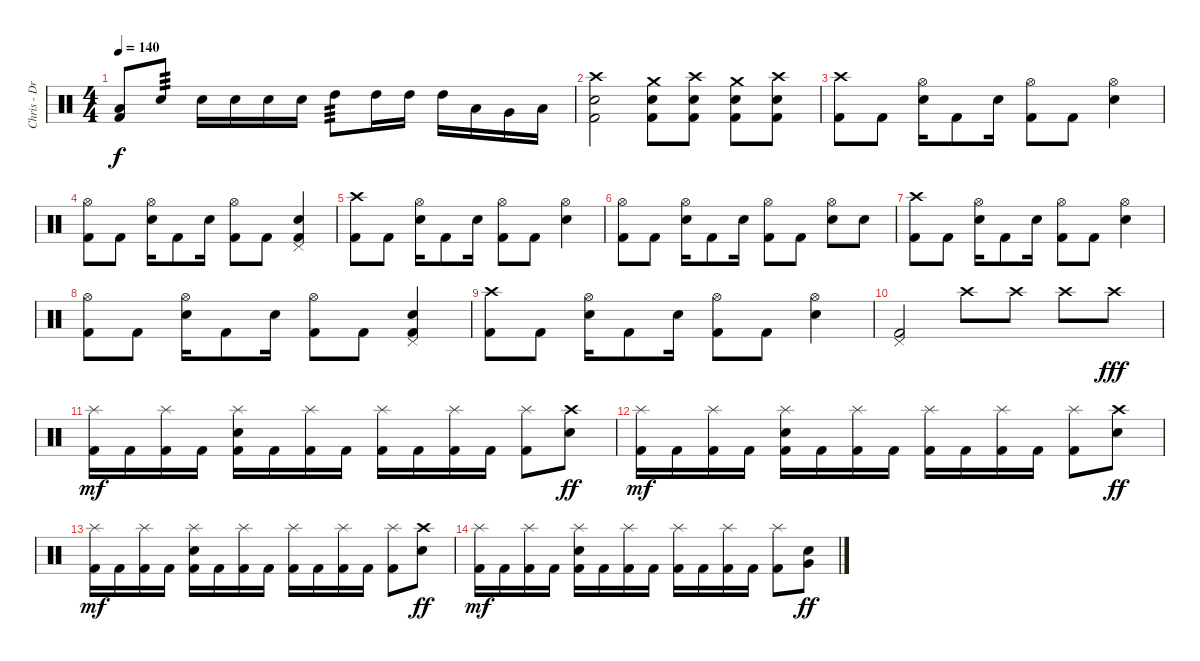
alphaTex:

\track ("Chris - Drums" "Chris - Dr") {instrument percussion}
\staff {score}
\articulation defaults
\ts (4 4)
\tempo 140
\clef neutral
\ks c
("Low Floor Tom (hit)" "Kick (hit) 2").8{dy f} "Electric Snare (hit)".8{tp 3} "Electric Snare (hit)".16 "Electric Snare (hit)".16 "Electric Snare (hit)".16 "Electric Snare (hit)".16 "High Tom (hit)".8{tp 3} "High Tom (hit)".16 "High Tom (hit)".16 "High Tom (hit)".16 "Low Tom (hit)".16 "Very Low Tom (hit)".16 "Low Floor Tom (hit)".16 |
("Crash high (hit)" "Electric Snare (hit)" "Kick (hit) 2").2 ("Crash medium (hit)" "Electric Snare (hit)" "Kick (hit) 2").8 ("Crash high (hit)" "Electric Snare (hit)" "Kick (hit) 2").8 ("Crash medium (hit)" "Electric Snare (hit)" "Kick (hit) 2").8 ("Crash high (hit)" "Electric Snare (hit)" "Kick (hit) 2").8 |
("Crash high (hit)" "Kick (hit) 2").8 "Kick (hit) 2".8 ("Hi-Hat (open)" "Electric Snare (hit)").16 "Kick (hit) 2".8 "Electric Snare (hit)".16 ("Hi-Hat (open)" "Kick (hit) 2").8 "Kick (hit) 2".8 ("Hi-Hat (open)" "Electric Snare (hit)").4 |
("Hi-Hat (open)" "Kick (hit) 2").8 "Kick (hit) 2".8 ("Hi-Hat (open)" "Electric Snare (hit)").16 "Kick (hit) 2".8 "Electric Snare (hit)".16 ("Hi-Hat (open)" "Kick (hit) 2").8 "Kick (hit) 2".8 ("Pedal Hi-Hat (hit)" "Electric Snare (hit)" "Kick (hit) 2").4 |
("Crash high (hit)" "Kick (hit) 2").8 "Kick (hit) 2".8 ("Hi-Hat (open)" "Electric Snare (hit)").16 "Kick (hit) 2".8 "Electric Snare (hit)".16 ("Hi-Hat (open)" "Kick (hit) 2").8 "Kick (hit) 2".8 ("Hi-Hat (open)" "Electric Snare (hit)").4 |
("Hi-Hat (open)" "Kick (hit) 2").8 "Kick (hit) 2".8 ("Hi-Hat (open)" "Electric Snare (hit)").16 "Kick (hit) 2".8 "Electric Snare (hit)".16 ("Hi-Hat (open)" "Kick (hit) 2").8 "Kick (hit) 2".8 ("Hi-Hat (open)" "Electric Snare (hit)").8 "Electric Snare (hit)".8 |
("Crash high (hit)" "Kick (hit) 2").8 "Kick (hit) 2".8 ("Hi-Hat (open)" "Electric Snare (hit)").16 "Kick (hit) 2".8 "Electric Snare (hit)".16 ("Hi-Hat (open)" "Kick (hit) 2").8 "Kick (hit) 2".8 ("Hi-Hat (open)" "Electric Snare (hit)").4 |
("Hi-Hat (open)" "Kick (hit) 2").8 "Kick (hit) 2".8 ("Hi-Hat (open)" "Electric Snare (hit)").16 "Kick (hit) 2".8 "Electric Snare (hit)".16 ("Hi-Hat (open)" "Kick (hit) 2").8 "Kick (hit) 2".8 ("Pedal Hi-Hat (hit)" "Electric Snare (hit)" "Kick (hit) 2").4 |
("Crash high (hit)" "Kick (hit) 2").8 "Kick (hit) 2".8 ("Hi-Hat (open)" "Electric Snare (hit)").16 "Kick (hit) 2".8 "Electric Snare (hit)".16 ("Hi-Hat (open)" "Kick (hit) 2").8 "Kick (hit) 2".8 ("Hi-Hat (open)" "Electric Snare (hit)").4 |
("Pedal Hi-Hat (hit)" "Kick (hit) 2").2 "Crash high (hit)".8 "Crash high (hit)".8 "Crash high (hit)".8 "Crash high (hit)".8{dy fff} |
("Splash (hit)" "Kick (hit) 2").16{dy mf} "Kick (hit) 2".16 ("Splash (hit)" "Kick (hit) 2").16 "Kick (hit) 2".16 ("Splash (hit)" "Electric Snare (hit)" "Kick (hit) 2").16 "Kick (hit) 2".16 ("Splash (hit)" "Kick (hit) 2").16 "Kick (hit) 2".16 ("Splash (hit)" "Kick (hit) 2").16 "Kick (hit) 2".16 ("Splash (hit)" "Kick (hit) 2").16 "Kick (hit) 2".16 ("Splash (hit)" "Kick (hit) 2").8 ("Crash high (hit)" "Electric Snare (hit)").8{dy ff} |
("Splash (hit)" "Kick (hit) 2").16{dy mf} "Kick (hit) 2".16 ("Splash (hit)" "Kick (hit) 2").16 "Kick (hit) 2".16 ("Splash (hit)" "Electric Snare (hit)" "Kick (hit) 2").16 "Kick (hit) 2".16 ("Splash (hit)" "Kick (hit) 2").16 "Kick (hit) 2".16 ("Splash (hit)" "Kick (hit) 2").16 "Kick (hit) 2".16 ("Splash (hit)" "Kick (hit) 2").16 "Kick (hit) 2".16 ("Splash (hit)" "Kick (hit) 2").8 ("Crash high (hit)" "Electric Snare (hit)").8{dy ff} |
("Splash (hit)" "Kick (hit) 2").16{dy mf} "Kick (hit) 2".16 ("Splash (hit)" "Kick (hit) 2").16 "Kick (hit) 2".16 ("Splash (hit)" "Electric Snare (hit)" "Kick (hit) 2").16 "Kick (hit) 2".16 ("Splash (hit)" "Kick (hit) 2").16 "Kick (hit) 2".16 ("Splash (hit)" "Kick (hit) 2").16 "Kick (hit) 2".16 ("Splash (hit)" "Kick (hit) 2").16 "Kick (hit) 2".16 ("Splash (hit)" "Kick (hit) 2").8 ("Crash high (hit)" "Electric Snare (hit)").8{dy ff} |
("Splash (hit)" "Kick (hit) 2").16{dy mf} "Kick (hit) 2".16 ("Splash (hit)" "Kick (hit) 2").16 "Kick (hit) 2".16 ("Splash (hit)" "Electric Snare (hit)" "Kick (hit) 2").16 "Kick (hit) 2".16 ("Splash (hit)" "Kick (hit) 2").16 "Kick (hit) 2".16 ("Splash (hit)" "Kick (hit) 2").16 "Kick (hit) 2".16 ("Splash (hit)" "Kick (hit) 2").16 "Kick (hit) 2".16 ("Splash (hit)" "Kick (hit) 2").8 ("Very Low Tom (hit)" "Electric Snare (hit)").8{dy ff}
